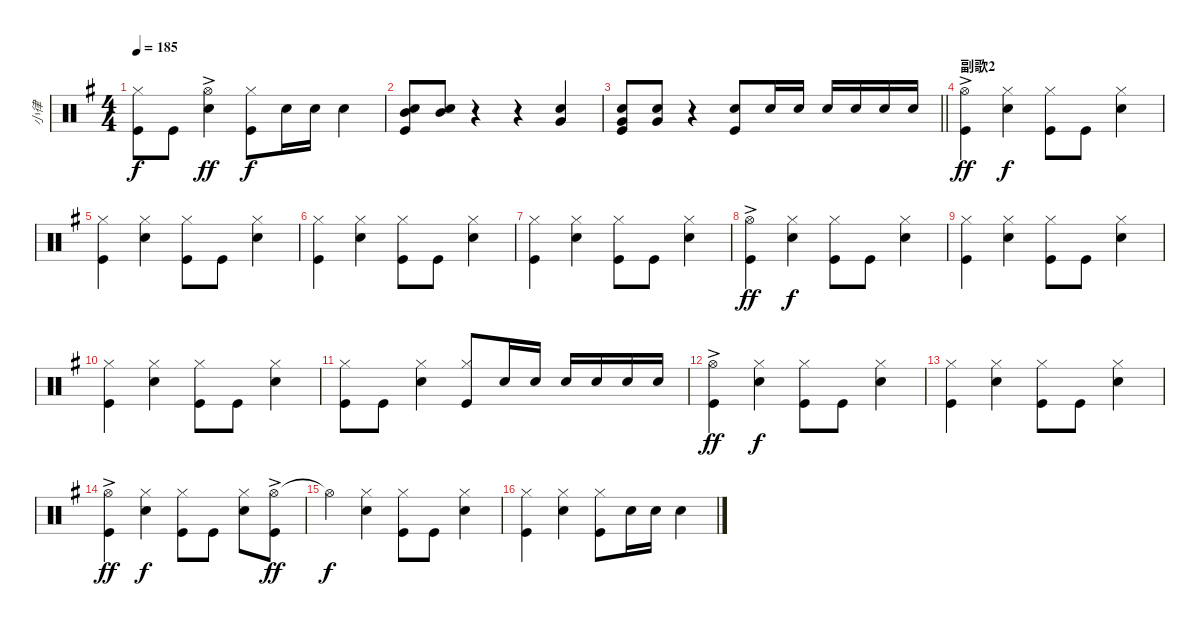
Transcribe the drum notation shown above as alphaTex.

\track ("小律" "小律") {instrument percussion}
\staff {score}
\articulation defaults
\ts (4 4)
\tempo 185
\clef neutral
\ks g
("Hi-Hat (closed)" "Kick (hit)").8{dy f} "Kick (hit)".8 ("Hi-Hat (open)"{ac} "Snare (hit) 2").4{dy ff} ("Kick (hit)" "Hi-Hat (closed)").8{dy f} "Snare (hit) 2".16 "Snare (hit) 2".16 "Snare (hit) 2".4 |
("Snare (hit) 2" "Mid Tom (hit)" "Kick (hit)").8 ("Mid Tom (hit)" "Snare (hit) 2").8 r.4 r.4 ("Snare (hit) 2" "Very Low Tom (hit)").4 |
\barLineRight lightlight
("Kick (hit)" "Snare (hit) 2" "Very Low Tom (hit)").8 ("Snare (hit) 2" "Very Low Tom (hit)").8 r.4 ("Kick (hit)" "Snare (hit) 2").8 "Snare (hit) 2".16 "Snare (hit) 2".16 "Snare (hit) 2".16{beam Up} "Snare (hit) 2".16{beam Up} "Snare (hit) 2".16{beam Up} "Snare (hit) 2".16{beam Up} |
\section ("" "副歌2")
("Hi-Hat (open)"{ac} "Kick (hit)").4{dy ff} ("Hi-Hat (closed)" "Snare (hit) 2").4{dy f} ("Hi-Hat (closed)" "Kick (hit)").8 "Kick (hit)".8 ("Hi-Hat (closed)" "Snare (hit) 2").4 |
("Hi-Hat (closed)" "Kick (hit)").4 ("Hi-Hat (closed)" "Snare (hit) 2").4 ("Hi-Hat (closed)" "Kick (hit)").8 "Kick (hit)".8 ("Hi-Hat (closed)" "Snare (hit) 2").4 |
("Hi-Hat (closed)" "Kick (hit)").4 ("Hi-Hat (closed)" "Snare (hit) 2").4 ("Hi-Hat (closed)" "Kick (hit)").8 "Kick (hit)".8 ("Hi-Hat (closed)" "Snare (hit) 2").4 |
("Hi-Hat (closed)" "Kick (hit)").4 ("Hi-Hat (closed)" "Snare (hit) 2").4 ("Hi-Hat (closed)" "Kick (hit)").8 "Kick (hit)".8 ("Hi-Hat (closed)" "Snare (hit) 2").4 |
("Hi-Hat (open)"{ac} "Kick (hit)").4{dy ff} ("Hi-Hat (closed)" "Snare (hit) 2").4{dy f} ("Hi-Hat (closed)" "Kick (hit)").8 "Kick (hit)".8 ("Hi-Hat (closed)" "Snare (hit) 2").4 |
("Hi-Hat (closed)" "Kick (hit)").4 ("Hi-Hat (closed)" "Snare (hit) 2").4 ("Hi-Hat (closed)" "Kick (hit)").8 "Kick (hit)".8 ("Hi-Hat (closed)" "Snare (hit) 2").4 |
("Hi-Hat (closed)" "Kick (hit)").4 ("Hi-Hat (closed)" "Snare (hit) 2").4 ("Hi-Hat (closed)" "Kick (hit)").8 "Kick (hit)".8 ("Hi-Hat (closed)" "Snare (hit) 2").4 |
("Hi-Hat (closed)" "Kick (hit)").8 "Kick (hit)".8 ("Hi-Hat (closed)" "Snare (hit) 2").4 ("Hi-Hat (closed)" "Kick (hit)").8{beam Up} "Snare (hit) 2".16{beam Up} "Snare (hit) 2".16{beam Up} "Snare (hit) 2".16{beam Up} "Snare (hit) 2".16{beam Up} "Snare (hit) 2".16{beam Up} "Snare (hit) 2".16{beam Up} |
("Hi-Hat (open)"{ac} "Kick (hit)").4{dy ff} ("Snare (hit) 2" "Hi-Hat (closed)").4{dy f} ("Hi-Hat (closed)" "Kick (hit)").8 "Kick (hit)".8 ("Hi-Hat (closed)" "Snare (hit) 2").4 |
("Hi-Hat (closed)" "Kick (hit)").4 ("Hi-Hat (closed)" "Snare (hit) 2").4 ("Hi-Hat (closed)" "Kick (hit)").8 "Kick (hit)".8 ("Hi-Hat (closed)" "Snare (hit) 2").4 |
("Hi-Hat (open)"{ac} "Kick (hit)").4{dy ff} ("Hi-Hat (closed)" "Snare (hit) 2").4{dy f} ("Hi-Hat (closed)" "Kick (hit)").8 "Kick (hit)".8 ("Hi-Hat (closed)" "Snare (hit) 2").8 ("Hi-Hat (open)"{ac} "Kick (hit)").8{dy ff} |
"Hi-Hat (open)"{t}.4{dy f} ("Hi-Hat (closed)" "Snare (hit) 2").4 ("Hi-Hat (closed)" "Kick (hit)").8 "Kick (hit)".8 ("Hi-Hat (closed)" "Snare (hit) 2").4 |
("Hi-Hat (closed)" "Kick (hit)").4 ("Hi-Hat (closed)" "Snare (hit) 2").4 ("Hi-Hat (closed)" "Kick (hit)").8 "Snare (hit) 2".16 "Snare (hit) 2".16 "Snare (hit) 2".4
